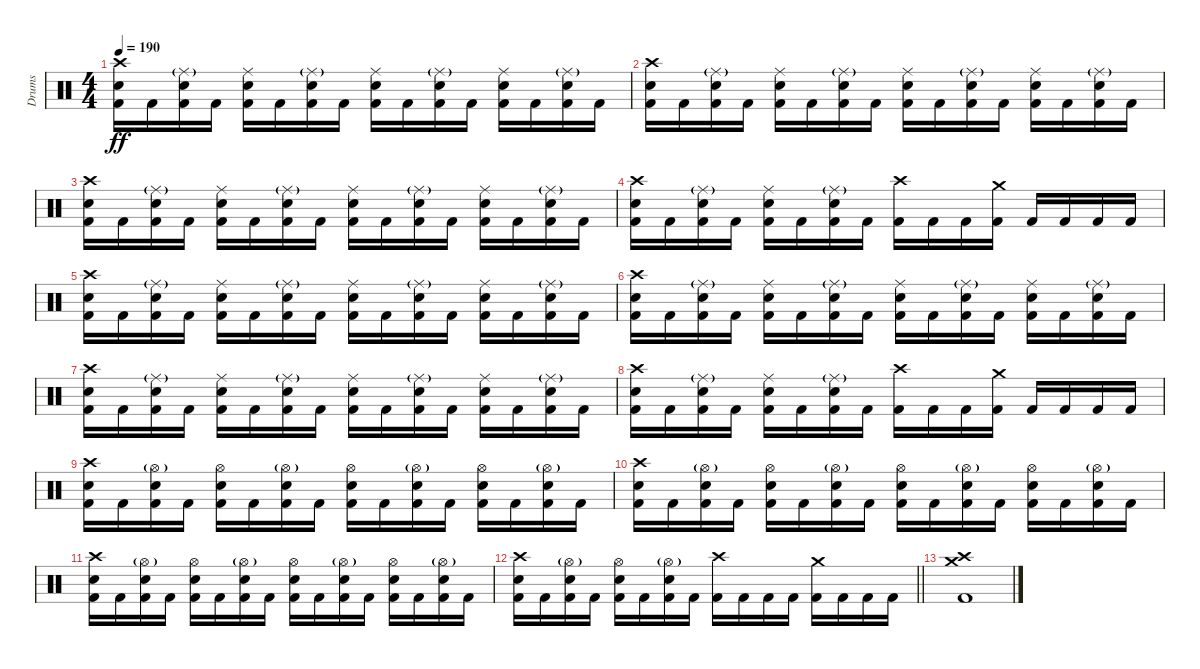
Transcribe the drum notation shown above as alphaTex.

\track ("Drums" "Drums") {instrument percussion}
\staff {score}
\articulation defaults
\ts (4 4)
\tempo 190
\clef neutral
\ks c
("Crash high (hit)" "Electric Snare (hit)" "Kick (hit) 2").16{dy ff} "Kick (hit) 2".16 ("Ride (middle)"{g} "Electric Snare (hit)" "Kick (hit) 2").16 "Kick (hit) 2".16 ("Ride (middle)" "Electric Snare (hit)" "Kick (hit) 2").16 "Kick (hit) 2".16 ("Ride (middle)"{g} "Electric Snare (hit)" "Kick (hit) 2").16 "Kick (hit) 2".16 ("Ride (middle)" "Electric Snare (hit)" "Kick (hit) 2").16 "Kick (hit) 2".16 ("Ride (middle)"{g} "Electric Snare (hit)" "Kick (hit) 2").16 "Kick (hit) 2".16 ("Ride (middle)" "Electric Snare (hit)" "Kick (hit) 2").16 "Kick (hit) 2".16 ("Ride (middle)"{g} "Electric Snare (hit)" "Kick (hit) 2").16 "Kick (hit) 2".16 |
("Crash high (hit)" "Electric Snare (hit)" "Kick (hit) 2").16 "Kick (hit) 2".16 ("Ride (middle)"{g} "Electric Snare (hit)" "Kick (hit) 2").16 "Kick (hit) 2".16 ("Ride (middle)" "Electric Snare (hit)" "Kick (hit) 2").16 "Kick (hit) 2".16 ("Ride (middle)"{g} "Electric Snare (hit)" "Kick (hit) 2").16 "Kick (hit) 2".16 ("Ride (middle)" "Electric Snare (hit)" "Kick (hit) 2").16 "Kick (hit) 2".16 ("Ride (middle)"{g} "Electric Snare (hit)" "Kick (hit) 2").16 "Kick (hit) 2".16 ("Ride (middle)" "Electric Snare (hit)" "Kick (hit) 2").16 "Kick (hit) 2".16 ("Ride (middle)"{g} "Electric Snare (hit)" "Kick (hit) 2").16 "Kick (hit) 2".16 |
("Crash high (hit)" "Electric Snare (hit)" "Kick (hit) 2").16 "Kick (hit) 2".16 ("Ride (middle)"{g} "Electric Snare (hit)" "Kick (hit) 2").16 "Kick (hit) 2".16 ("Ride (middle)" "Electric Snare (hit)" "Kick (hit) 2").16 "Kick (hit) 2".16 ("Ride (middle)"{g} "Electric Snare (hit)" "Kick (hit) 2").16 "Kick (hit) 2".16 ("Ride (middle)" "Electric Snare (hit)" "Kick (hit) 2").16 "Kick (hit) 2".16 ("Ride (middle)"{g} "Electric Snare (hit)" "Kick (hit) 2").16 "Kick (hit) 2".16 ("Ride (middle)" "Electric Snare (hit)" "Kick (hit) 2").16 "Kick (hit) 2".16 ("Ride (middle)"{g} "Electric Snare (hit)" "Kick (hit) 2").16 "Kick (hit) 2".16 |
("Crash high (hit)" "Electric Snare (hit)" "Kick (hit) 2").16 "Kick (hit) 2".16 ("Ride (middle)"{g} "Electric Snare (hit)" "Kick (hit) 2").16 "Kick (hit) 2".16 ("Ride (middle)" "Electric Snare (hit)" "Kick (hit) 2").16 "Kick (hit) 2".16 ("Ride (middle)"{g} "Electric Snare (hit)" "Kick (hit) 2").16 "Kick (hit) 2".16 ("Crash high (hit)" "Kick (hit) 2").16 "Kick (hit) 2".16 "Kick (hit) 2".16 ("Crash medium (hit)" "Kick (hit) 2").16 "Kick (hit) 2".16 "Kick (hit) 2".16 "Kick (hit) 2".16 "Kick (hit) 2".16 |
("Crash high (hit)" "Electric Snare (hit)" "Kick (hit) 2").16 "Kick (hit) 2".16 ("Ride (middle)"{g} "Electric Snare (hit)" "Kick (hit) 2").16 "Kick (hit) 2".16 ("Ride (middle)" "Electric Snare (hit)" "Kick (hit) 2").16 "Kick (hit) 2".16 ("Ride (middle)"{g} "Electric Snare (hit)" "Kick (hit) 2").16 "Kick (hit) 2".16 ("Ride (middle)" "Electric Snare (hit)" "Kick (hit) 2").16 "Kick (hit) 2".16 ("Ride (middle)"{g} "Electric Snare (hit)" "Kick (hit) 2").16 "Kick (hit) 2".16 ("Ride (middle)" "Electric Snare (hit)" "Kick (hit) 2").16 "Kick (hit) 2".16 ("Ride (middle)"{g} "Electric Snare (hit)" "Kick (hit) 2").16 "Kick (hit) 2".16 |
("Crash high (hit)" "Electric Snare (hit)" "Kick (hit) 2").16 "Kick (hit) 2".16 ("Ride (middle)"{g} "Electric Snare (hit)" "Kick (hit) 2").16 "Kick (hit) 2".16 ("Ride (middle)" "Electric Snare (hit)" "Kick (hit) 2").16 "Kick (hit) 2".16 ("Ride (middle)"{g} "Electric Snare (hit)" "Kick (hit) 2").16 "Kick (hit) 2".16 ("Ride (middle)" "Electric Snare (hit)" "Kick (hit) 2").16 "Kick (hit) 2".16 ("Ride (middle)"{g} "Electric Snare (hit)" "Kick (hit) 2").16 "Kick (hit) 2".16 ("Ride (middle)" "Electric Snare (hit)" "Kick (hit) 2").16 "Kick (hit) 2".16 ("Ride (middle)"{g} "Electric Snare (hit)" "Kick (hit) 2").16 "Kick (hit) 2".16 |
("Crash high (hit)" "Electric Snare (hit)" "Kick (hit) 2").16 "Kick (hit) 2".16 ("Ride (middle)"{g} "Electric Snare (hit)" "Kick (hit) 2").16 "Kick (hit) 2".16 ("Ride (middle)" "Electric Snare (hit)" "Kick (hit) 2").16 "Kick (hit) 2".16 ("Ride (middle)"{g} "Electric Snare (hit)" "Kick (hit) 2").16 "Kick (hit) 2".16 ("Ride (middle)" "Electric Snare (hit)" "Kick (hit) 2").16 "Kick (hit) 2".16 ("Ride (middle)"{g} "Electric Snare (hit)" "Kick (hit) 2").16 "Kick (hit) 2".16 ("Ride (middle)" "Electric Snare (hit)" "Kick (hit) 2").16 "Kick (hit) 2".16 ("Ride (middle)"{g} "Electric Snare (hit)" "Kick (hit) 2").16 "Kick (hit) 2".16 |
("Crash high (hit)" "Electric Snare (hit)" "Kick (hit) 2").16 "Kick (hit) 2".16 ("Ride (middle)"{g} "Electric Snare (hit)" "Kick (hit) 2").16 "Kick (hit) 2".16 ("Ride (middle)" "Electric Snare (hit)" "Kick (hit) 2").16 "Kick (hit) 2".16 ("Ride (middle)"{g} "Electric Snare (hit)" "Kick (hit) 2").16 "Kick (hit) 2".16 ("Crash high (hit)" "Kick (hit) 2").16 "Kick (hit) 2".16 "Kick (hit) 2".16 ("Crash medium (hit)" "Kick (hit) 2").16 "Kick (hit) 2".16 "Kick (hit) 2".16 "Kick (hit) 2".16 "Kick (hit) 2".16 |
("Crash high (hit)" "Electric Snare (hit)" "Kick (hit) 2").16 "Kick (hit) 2".16 ("Hi-Hat (open)"{g} "Electric Snare (hit)" "Kick (hit) 2").16 "Kick (hit) 2".16 ("Hi-Hat (open)" "Electric Snare (hit)" "Kick (hit) 2").16 "Kick (hit) 2".16 ("Hi-Hat (open)"{g} "Electric Snare (hit)" "Kick (hit) 2").16 "Kick (hit) 2".16 ("Hi-Hat (open)" "Electric Snare (hit)" "Kick (hit) 2").16 "Kick (hit) 2".16 ("Hi-Hat (open)"{g} "Electric Snare (hit)" "Kick (hit) 2").16 "Kick (hit) 2".16 ("Hi-Hat (open)" "Electric Snare (hit)" "Kick (hit) 2").16 "Kick (hit) 2".16 ("Hi-Hat (open)"{g} "Electric Snare (hit)" "Kick (hit) 2").16 "Kick (hit) 2".16 |
("Crash high (hit)" "Electric Snare (hit)" "Kick (hit) 2").16 "Kick (hit) 2".16 ("Hi-Hat (open)"{g} "Electric Snare (hit)" "Kick (hit) 2").16 "Kick (hit) 2".16 ("Hi-Hat (open)" "Electric Snare (hit)" "Kick (hit) 2").16 "Kick (hit) 2".16 ("Hi-Hat (open)"{g} "Electric Snare (hit)" "Kick (hit) 2").16 "Kick (hit) 2".16 ("Hi-Hat (open)" "Electric Snare (hit)" "Kick (hit) 2").16 "Kick (hit) 2".16 ("Hi-Hat (open)"{g} "Electric Snare (hit)" "Kick (hit) 2").16 "Kick (hit) 2".16 ("Hi-Hat (open)" "Electric Snare (hit)" "Kick (hit) 2").16 "Kick (hit) 2".16 ("Hi-Hat (open)"{g} "Electric Snare (hit)" "Kick (hit) 2").16 "Kick (hit) 2".16 |
("Crash high (hit)" "Electric Snare (hit)" "Kick (hit) 2").16 "Kick (hit) 2".16 ("Hi-Hat (open)"{g} "Electric Snare (hit)" "Kick (hit) 2").16 "Kick (hit) 2".16 ("Hi-Hat (open)" "Electric Snare (hit)" "Kick (hit) 2").16 "Kick (hit) 2".16 ("Hi-Hat (open)"{g} "Electric Snare (hit)" "Kick (hit) 2").16 "Kick (hit) 2".16 ("Hi-Hat (open)" "Electric Snare (hit)" "Kick (hit) 2").16 "Kick (hit) 2".16 ("Hi-Hat (open)"{g} "Electric Snare (hit)" "Kick (hit) 2").16 "Kick (hit) 2".16 ("Hi-Hat (open)" "Electric Snare (hit)" "Kick (hit) 2").16 "Kick (hit) 2".16 ("Hi-Hat (open)"{g} "Electric Snare (hit)" "Kick (hit) 2").16 "Kick (hit) 2".16 |
\barLineRight lightlight
("Crash high (hit)" "Electric Snare (hit)" "Kick (hit) 2").16 "Kick (hit) 2".16 ("Hi-Hat (open)"{g} "Electric Snare (hit)" "Kick (hit) 2").16 "Kick (hit) 2".16 ("Hi-Hat (open)" "Electric Snare (hit)" "Kick (hit) 2").16 "Kick (hit) 2".16 ("Hi-Hat (open)"{g} "Electric Snare (hit)" "Kick (hit) 2").16 "Kick (hit) 2".16 ("Crash high (hit)" "Kick (hit) 2").16 "Kick (hit) 2".16 "Kick (hit) 2".16 "Kick (hit) 2".16 ("Crash medium (hit)" "Kick (hit) 2").16 "Kick (hit) 2".16 "Kick (hit) 2".16 "Kick (hit) 2".16 |
("Crash high (hit)" "Crash medium (hit)" "Kick (hit) 2").1
